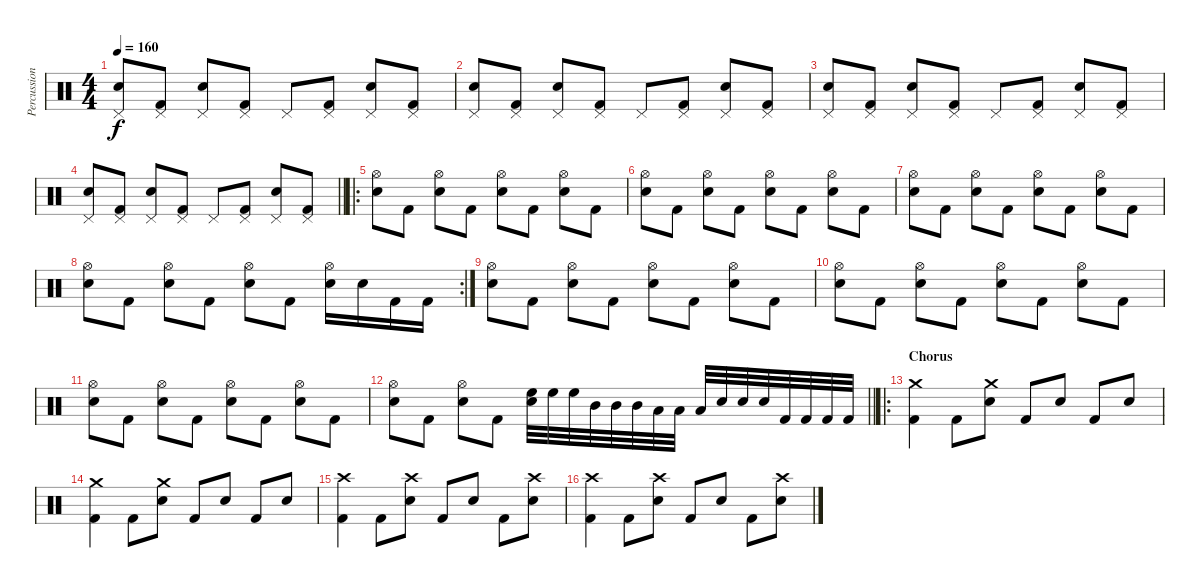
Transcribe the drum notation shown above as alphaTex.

\track ("Percussion" "Percussion") {instrument percussion}
\staff {score}
\articulation defaults
\ts (4 4)
\tempo 160
\clef neutral
\ks c
("Pedal Hi-Hat (hit)" "Electric Snare (hit)").8{dy f} ("Pedal Hi-Hat (hit)" "Kick (hit) 2").8 ("Pedal Hi-Hat (hit)" "Electric Snare (hit)").8 ("Pedal Hi-Hat (hit)" "Kick (hit) 2").8 "Pedal Hi-Hat (hit)".8 ("Pedal Hi-Hat (hit)" "Kick (hit) 2").8 ("Pedal Hi-Hat (hit)" "Electric Snare (hit)").8 ("Pedal Hi-Hat (hit)" "Kick (hit) 2").8 |
("Pedal Hi-Hat (hit)" "Electric Snare (hit)").8 ("Pedal Hi-Hat (hit)" "Kick (hit) 2").8 ("Pedal Hi-Hat (hit)" "Electric Snare (hit)").8 ("Pedal Hi-Hat (hit)" "Kick (hit) 2").8 "Pedal Hi-Hat (hit)".8 ("Pedal Hi-Hat (hit)" "Kick (hit) 2").8 ("Pedal Hi-Hat (hit)" "Electric Snare (hit)").8 ("Pedal Hi-Hat (hit)" "Kick (hit) 2").8 |
("Pedal Hi-Hat (hit)" "Electric Snare (hit)").8 ("Pedal Hi-Hat (hit)" "Kick (hit) 2").8 ("Pedal Hi-Hat (hit)" "Electric Snare (hit)").8 ("Pedal Hi-Hat (hit)" "Kick (hit) 2").8 "Pedal Hi-Hat (hit)".8 ("Pedal Hi-Hat (hit)" "Kick (hit) 2").8 ("Pedal Hi-Hat (hit)" "Electric Snare (hit)").8 ("Pedal Hi-Hat (hit)" "Kick (hit) 2").8 |
\barLineRight lightlight
("Pedal Hi-Hat (hit)" "Electric Snare (hit)").8 ("Pedal Hi-Hat (hit)" "Kick (hit) 2").8 ("Pedal Hi-Hat (hit)" "Electric Snare (hit)").8 ("Pedal Hi-Hat (hit)" "Kick (hit) 2").8 "Pedal Hi-Hat (hit)".8 ("Pedal Hi-Hat (hit)" "Kick (hit) 2").8 ("Pedal Hi-Hat (hit)" "Electric Snare (hit)").8 ("Pedal Hi-Hat (hit)" "Kick (hit) 2").8 |
\ro
("Hi-Hat (open)" "Electric Snare (hit)").8 "Kick (hit) 2".8 ("Hi-Hat (open)" "Electric Snare (hit)").8 "Kick (hit) 2".8 ("Hi-Hat (open)" "Electric Snare (hit)").8 "Kick (hit) 2".8 ("Hi-Hat (open)" "Electric Snare (hit)").8 "Kick (hit) 2".8 |
("Hi-Hat (open)" "Electric Snare (hit)").8 "Kick (hit) 2".8 ("Hi-Hat (open)" "Electric Snare (hit)").8 "Kick (hit) 2".8 ("Hi-Hat (open)" "Electric Snare (hit)").8 "Kick (hit) 2".8 ("Hi-Hat (open)" "Electric Snare (hit)").8 "Kick (hit) 2".8 |
("Hi-Hat (open)" "Electric Snare (hit)").8 "Kick (hit) 2".8 ("Hi-Hat (open)" "Electric Snare (hit)").8 "Kick (hit) 2".8 ("Hi-Hat (open)" "Electric Snare (hit)").8 "Kick (hit) 2".8 ("Hi-Hat (open)" "Electric Snare (hit)").8 "Kick (hit) 2".8 |
\rc 2
("Hi-Hat (open)" "Electric Snare (hit)").8 "Kick (hit) 2".8 ("Hi-Hat (open)" "Electric Snare (hit)").8 "Kick (hit) 2".8 ("Hi-Hat (open)" "Electric Snare (hit)").8 "Kick (hit) 2".8 ("Hi-Hat (open)" "Electric Snare (hit)").16 "Electric Snare (hit)".16 "Kick (hit) 2".16 "Kick (hit) 2".16 |
("Hi-Hat (open)" "Electric Snare (hit)").8 "Kick (hit) 2".8 ("Hi-Hat (open)" "Electric Snare (hit)").8 "Kick (hit) 2".8 ("Hi-Hat (open)" "Electric Snare (hit)").8 "Kick (hit) 2".8 ("Hi-Hat (open)" "Electric Snare (hit)").8 "Kick (hit) 2".8 |
("Hi-Hat (open)" "Electric Snare (hit)").8 "Kick (hit) 2".8 ("Hi-Hat (open)" "Electric Snare (hit)").8 "Kick (hit) 2".8 ("Hi-Hat (open)" "Electric Snare (hit)").8 "Kick (hit) 2".8 ("Hi-Hat (open)" "Electric Snare (hit)").8 "Kick (hit) 2".8 |
("Hi-Hat (open)" "Electric Snare (hit)").8 "Kick (hit) 2".8 ("Hi-Hat (open)" "Electric Snare (hit)").8 "Kick (hit) 2".8 ("Hi-Hat (open)" "Electric Snare (hit)").8 "Kick (hit) 2".8 ("Hi-Hat (open)" "Electric Snare (hit)").8 "Kick (hit) 2".8 |
\barLineRight lightlight
("Hi-Hat (open)" "Electric Snare (hit)").8 "Kick (hit) 2".8 ("Hi-Hat (open)" "Electric Snare (hit)").8 "Kick (hit) 2".8 ("High Floor Tom (hit)" "Electric Snare (hit)").32 "High Floor Tom (hit)".32 "High Floor Tom (hit)".32 "Mid Tom (hit)".32 "Mid Tom (hit)".32 "Mid Tom (hit)".32 "Low Tom (hit)".32 "Low Tom (hit)".32 "Low Tom (hit)".32 "Electric Snare (hit)".32 "Electric Snare (hit)".32 "Electric Snare (hit)".32 "Kick (hit) 2".32 "Kick (hit) 2".32 "Kick (hit) 2".32 "Kick (hit) 2".32 |
\ro
\section ("" "Chorus")
("Crash medium (hit)" "Kick (hit) 2").4 "Kick (hit) 2".8 ("Crash medium (hit)" "Electric Snare (hit)").8 "Kick (hit) 2".8 "Electric Snare (hit)".8 "Kick (hit) 2".8 "Electric Snare (hit)".8 |
("Crash medium (hit)" "Kick (hit) 2").4 "Kick (hit) 2".8 ("Crash medium (hit)" "Electric Snare (hit)").8 "Kick (hit) 2".8 "Electric Snare (hit)".8 "Kick (hit) 2".8 "Electric Snare (hit)".8 |
("Crash high (hit)" "Kick (hit) 2").4 "Kick (hit) 2".8 ("Crash high (hit)" "Electric Snare (hit)").8 "Kick (hit) 2".8 "Electric Snare (hit)".8 "Kick (hit) 2".8 ("Crash high (hit)" "Electric Snare (hit)").8 |
("Crash high (hit)" "Kick (hit) 2").4 "Kick (hit) 2".8 ("Crash high (hit)" "Electric Snare (hit)").8 "Kick (hit) 2".8 "Electric Snare (hit)".8 "Kick (hit) 2".8 ("Crash high (hit)" "Electric Snare (hit)").8
